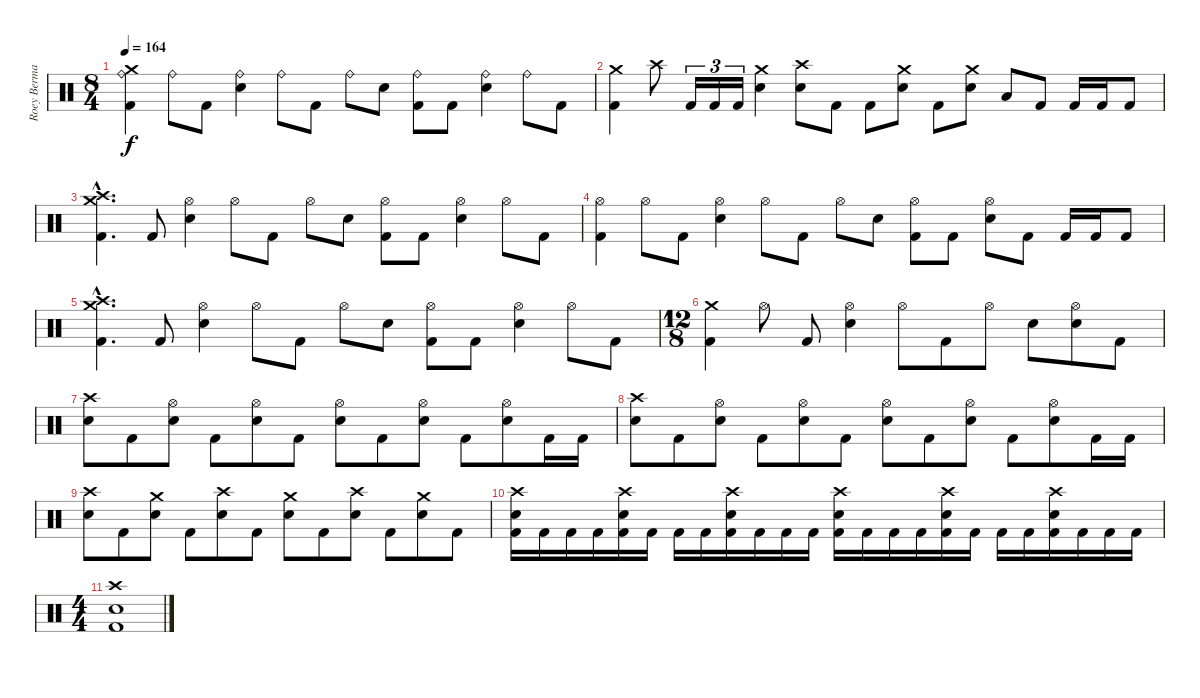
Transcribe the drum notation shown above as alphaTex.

\track ("Roey Berman" "Roey Berma") {instrument percussion}
\staff {score}
\articulation defaults
\ts (8 4)
\tempo 164
\clef neutral
\ks c
("Crash medium (hit)" "Ride (bell)" "Kick (hit) 2").4{dy f} "Ride (bell)".8 "Kick (hit) 2".8 ("Ride (bell)" "Electric Snare (hit)").4 "Ride (bell)".8 "Kick (hit) 2".8 "Ride (bell)".8 "Electric Snare (hit)".8 ("Ride (bell)" "Kick (hit) 2").8 "Kick (hit) 2".8 ("Ride (bell)" "Electric Snare (hit)").4 "Ride (bell)".8 "Kick (hit) 2".8 |
("Crash medium (hit)" "Kick (hit) 2").4 "Crash high (hit)".8 "Kick (hit) 2".16{tu (3 2)} "Kick (hit) 2".16{tu (3 2)} "Kick (hit) 2".16{tu (3 2)} ("Crash medium (hit)" "Electric Snare (hit)").4 ("Crash high (hit)" "Electric Snare (hit)").8 "Kick (hit) 2".8 "Kick (hit) 2".8 ("Crash medium (hit)" "Electric Snare (hit)").8 "Kick (hit) 2".8 ("Crash medium (hit)" "Electric Snare (hit)").8 "Low Tom (hit)".8 "Kick (hit) 2".8 "Kick (hit) 2".16 "Kick (hit) 2".16 "Kick (hit) 2".8 |
\section ("" "")
("Crash medium (hit)"{hac} "Crash high (hit)"{hac} "Kick (hit) 2"{hac}).4{d} "Kick (hit) 2".8 ("Hi-Hat (open)" "Electric Snare (hit)").4 "Hi-Hat (open)".8 "Kick (hit) 2".8 "Hi-Hat (open)".8 "Electric Snare (hit)".8 ("Hi-Hat (open)" "Kick (hit) 2").8 "Kick (hit) 2".8 ("Hi-Hat (open)" "Electric Snare (hit)").4 "Hi-Hat (open)".8 "Kick (hit) 2".8 |
("Hi-Hat (open)" "Kick (hit) 2").4 "Hi-Hat (open)".8 "Kick (hit) 2".8 ("Hi-Hat (open)" "Electric Snare (hit)").4 "Hi-Hat (open)".8 "Kick (hit) 2".8 "Hi-Hat (open)".8 "Electric Snare (hit)".8 ("Hi-Hat (open)" "Kick (hit) 2").8 "Kick (hit) 2".8 ("Hi-Hat (open)" "Electric Snare (hit)").8 "Kick (hit) 2".8 "Kick (hit) 2".16 "Kick (hit) 2".16 "Kick (hit) 2".8 |
("Crash medium (hit)"{hac} "Crash high (hit)"{hac} "Kick (hit) 2"{hac}).4{d} "Kick (hit) 2".8 ("Hi-Hat (open)" "Electric Snare (hit)").4 "Hi-Hat (open)".8 "Kick (hit) 2".8 "Hi-Hat (open)".8 "Electric Snare (hit)".8 ("Hi-Hat (open)" "Kick (hit) 2").8 "Kick (hit) 2".8 ("Hi-Hat (open)" "Electric Snare (hit)").4 "Hi-Hat (open)".8 "Kick (hit) 2".8 |
\ts (12 8)
("Crash medium (hit)" "Kick (hit) 2").4 "Hi-Hat (open)".8 "Kick (hit) 2".8 ("Hi-Hat (open)" "Electric Snare (hit)").4 "Hi-Hat (open)".8 "Kick (hit) 2".8 "Hi-Hat (open)".8 "Electric Snare (hit)".8 ("Hi-Hat (open)" "Electric Snare (hit)").8 "Kick (hit) 2".8 |
\section ("" "")
("Crash high (hit)" "Electric Snare (hit)").8 "Kick (hit) 2".8 ("Hi-Hat (open)" "Electric Snare (hit)").8 "Kick (hit) 2".8 ("Hi-Hat (open)" "Electric Snare (hit)").8 "Kick (hit) 2".8 ("Hi-Hat (open)" "Electric Snare (hit)").8 "Kick (hit) 2".8 ("Hi-Hat (open)" "Electric Snare (hit)").8 "Kick (hit) 2".8 ("Hi-Hat (open)" "Electric Snare (hit)").8 "Kick (hit) 2".16 "Kick (hit) 2".16 |
("Crash high (hit)" "Electric Snare (hit)").8 "Kick (hit) 2".8 ("Hi-Hat (open)" "Electric Snare (hit)").8 "Kick (hit) 2".8 ("Hi-Hat (open)" "Electric Snare (hit)").8 "Kick (hit) 2".8 ("Hi-Hat (open)" "Electric Snare (hit)").8 "Kick (hit) 2".8 ("Hi-Hat (open)" "Electric Snare (hit)").8 "Kick (hit) 2".8 ("Hi-Hat (open)" "Electric Snare (hit)").8 "Kick (hit) 2".16 "Kick (hit) 2".16 |
("Crash high (hit)" "Electric Snare (hit)").8 "Kick (hit) 2".8 ("Crash medium (hit)" "Electric Snare (hit)").8 "Kick (hit) 2".8 ("Crash high (hit)" "Electric Snare (hit)").8 "Kick (hit) 2".8 ("Crash medium (hit)" "Electric Snare (hit)").8 "Kick (hit) 2".8 ("Crash high (hit)" "Electric Snare (hit)").8 "Kick (hit) 2".8 ("Crash medium (hit)" "Electric Snare (hit)").8 "Kick (hit) 2".8 |
("Crash high (hit)" "Electric Snare (hit)" "Kick (hit) 2").16 "Kick (hit) 2".16 "Kick (hit) 2".16 "Kick (hit) 2".16 ("Crash high (hit)" "Electric Snare (hit)" "Kick (hit) 2").16 "Kick (hit) 2".16 "Kick (hit) 2".16 "Kick (hit) 2".16 ("Crash high (hit)" "Electric Snare (hit)" "Kick (hit) 2").16 "Kick (hit) 2".16 "Kick (hit) 2".16 "Kick (hit) 2".16 ("Crash high (hit)" "Electric Snare (hit)" "Kick (hit) 2").16 "Kick (hit) 2".16 "Kick (hit) 2".16 "Kick (hit) 2".16 ("Crash high (hit)" "Electric Snare (hit)" "Kick (hit) 2").16 "Kick (hit) 2".16 "Kick (hit) 2".16 "Kick (hit) 2".16 ("Crash high (hit)" "Electric Snare (hit)" "Kick (hit) 2").16 "Kick (hit) 2".16 "Kick (hit) 2".16 "Kick (hit) 2".16 |
\ts (4 4)
("Crash high (hit)" "Electric Snare (hit)" "Kick (hit) 2").1
